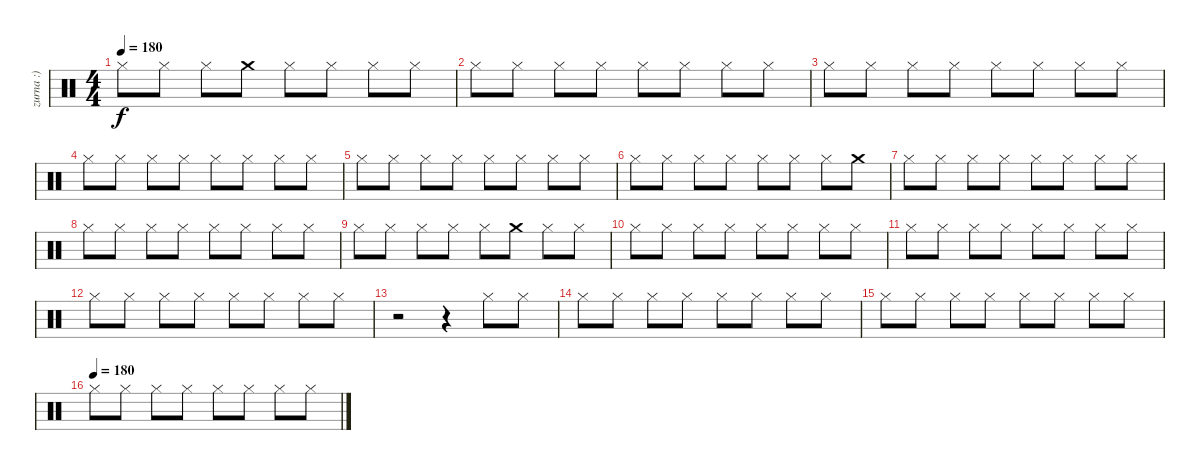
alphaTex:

\track ("zurna :)" "zurna :)") {instrument percussion}
\staff {score}
\articulation defaults
\ts (4 4)
\tempo 180
\clef neutral
\ks c "Hi-Hat (closed)".8{dy f} "Hi-Hat (closed)".8 "Hi-Hat (closed)".8 "Crash medium (hit)".8 "Hi-Hat (closed)".8 "Hi-Hat (closed)".8 "Hi-Hat (closed)".8 "Hi-Hat (closed)".8
|
"Hi-Hat (closed)".8 "Hi-Hat (closed)".8 "Hi-Hat (closed)".8 "Hi-Hat (closed)".8 "Hi-Hat (closed)".8 "Hi-Hat (closed)".8 "Hi-Hat (closed)".8 "Hi-Hat (closed)".8 |
"Hi-Hat (closed)".8 "Hi-Hat (closed)".8 "Hi-Hat (closed)".8 "Hi-Hat (closed)".8 "Hi-Hat (closed)".8 "Hi-Hat (closed)".8 "Hi-Hat (closed)".8 "Hi-Hat (closed)".8 |
"Hi-Hat (closed)".8 "Hi-Hat (closed)".8 "Hi-Hat (closed)".8 "Hi-Hat (closed)".8 "Hi-Hat (closed)".8 "Hi-Hat (closed)".8 "Hi-Hat (closed)".8 "Hi-Hat (closed)".8 |
"Hi-Hat (closed)".8 "Hi-Hat (closed)".8 "Hi-Hat (closed)".8 "Hi-Hat (closed)".8 "Hi-Hat (closed)".8 "Hi-Hat (closed)".8 "Hi-Hat (closed)".8 "Hi-Hat (closed)".8 |
"Hi-Hat (closed)".8 "Hi-Hat (closed)".8 "Hi-Hat (closed)".8 "Hi-Hat (closed)".8 "Hi-Hat (closed)".8 "Hi-Hat (closed)".8 "Hi-Hat (closed)".8 "Crash medium (hit)".8 |
"Hi-Hat (closed)".8 "Hi-Hat (closed)".8 "Hi-Hat (closed)".8 "Hi-Hat (closed)".8 "Hi-Hat (closed)".8 "Hi-Hat (closed)".8 "Hi-Hat (closed)".8 "Hi-Hat (closed)".8 |
"Hi-Hat (closed)".8 "Hi-Hat (closed)".8 "Hi-Hat (closed)".8 "Hi-Hat (closed)".8 "Hi-Hat (closed)".8 "Hi-Hat (closed)".8 "Hi-Hat (closed)".8 "Hi-Hat (closed)".8 |
"Hi-Hat (closed)".8 "Hi-Hat (closed)".8 "Hi-Hat (closed)".8 "Hi-Hat (closed)".8 "Hi-Hat (closed)".8 "Crash medium (hit)".8 "Hi-Hat (closed)".8 "Hi-Hat (closed)".8 |
"Hi-Hat (closed)".8 "Hi-Hat (closed)".8 "Hi-Hat (closed)".8 "Hi-Hat (closed)".8 "Hi-Hat (closed)".8 "Hi-Hat (closed)".8 "Hi-Hat (closed)".8 "Hi-Hat (closed)".8 |
"Hi-Hat (closed)".8 "Hi-Hat (closed)".8 "Hi-Hat (closed)".8 "Hi-Hat (closed)".8 "Hi-Hat (closed)".8 "Hi-Hat (closed)".8 "Hi-Hat (closed)".8 "Hi-Hat (closed)".8 |
"Hi-Hat (closed)".8 "Hi-Hat (closed)".8 "Hi-Hat (closed)".8 "Hi-Hat (closed)".8 "Hi-Hat (closed)".8 "Hi-Hat (closed)".8 "Hi-Hat (closed)".8 "Hi-Hat (closed)".8 |
r.2 r.4 "Hi-Hat (closed)".8 "Hi-Hat (closed)".8 |
"Hi-Hat (closed)".8 "Hi-Hat (closed)".8 "Hi-Hat (closed)".8 "Hi-Hat (closed)".8 "Hi-Hat (closed)".8 "Hi-Hat (closed)".8 "Hi-Hat (closed)".8 "Hi-Hat (closed)".8 |
"Hi-Hat (closed)".8 "Hi-Hat (closed)".8 "Hi-Hat (closed)".8 "Hi-Hat (closed)".8 "Hi-Hat (closed)".8 "Hi-Hat (closed)".8 "Hi-Hat (closed)".8 "Hi-Hat (closed)".8 |
\tempo (180)
"Hi-Hat (closed)".8 "Hi-Hat (closed)".8 "Hi-Hat (closed)".8 "Hi-Hat (closed)".8 "Hi-Hat (closed)".8 "Hi-Hat (closed)".8 "Hi-Hat (closed)".8 "Hi-Hat (closed)".8
